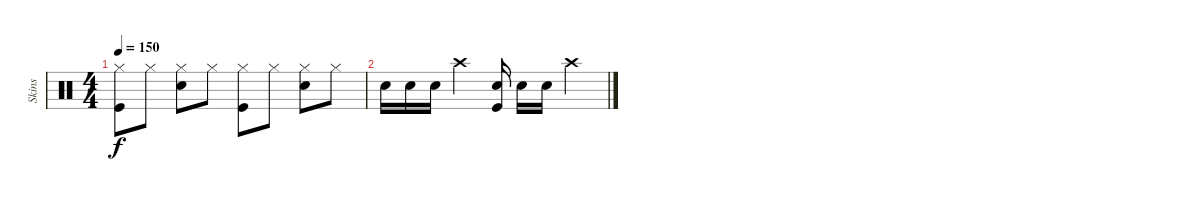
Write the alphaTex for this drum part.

\track ("Skins" "Skins") {instrument percussion}
\staff {score}
\articulation defaults
\ts (4 4)
\tempo 150
\clef neutral
\ks c
("Hi-Hat (closed)" "Kick (hit)").8{dy f} "Hi-Hat (closed)".8 ("Hi-Hat (closed)" "Snare (hit) 2").8 "Hi-Hat (closed)".8 ("Hi-Hat (closed)" "Kick (hit)").8 "Hi-Hat (closed)".8 ("Hi-Hat (closed)" "Snare (hit) 2").8 "Hi-Hat (closed)".8 |
"Snare (hit) 2".16 "Snare (hit) 2".16 "Snare (hit) 2".16 "Crash high (hit)".4 ("Snare (hit) 2" "Kick (hit)").16 "Snare (hit) 2".16 "Snare (hit) 2".16 "Crash high (hit)".4
